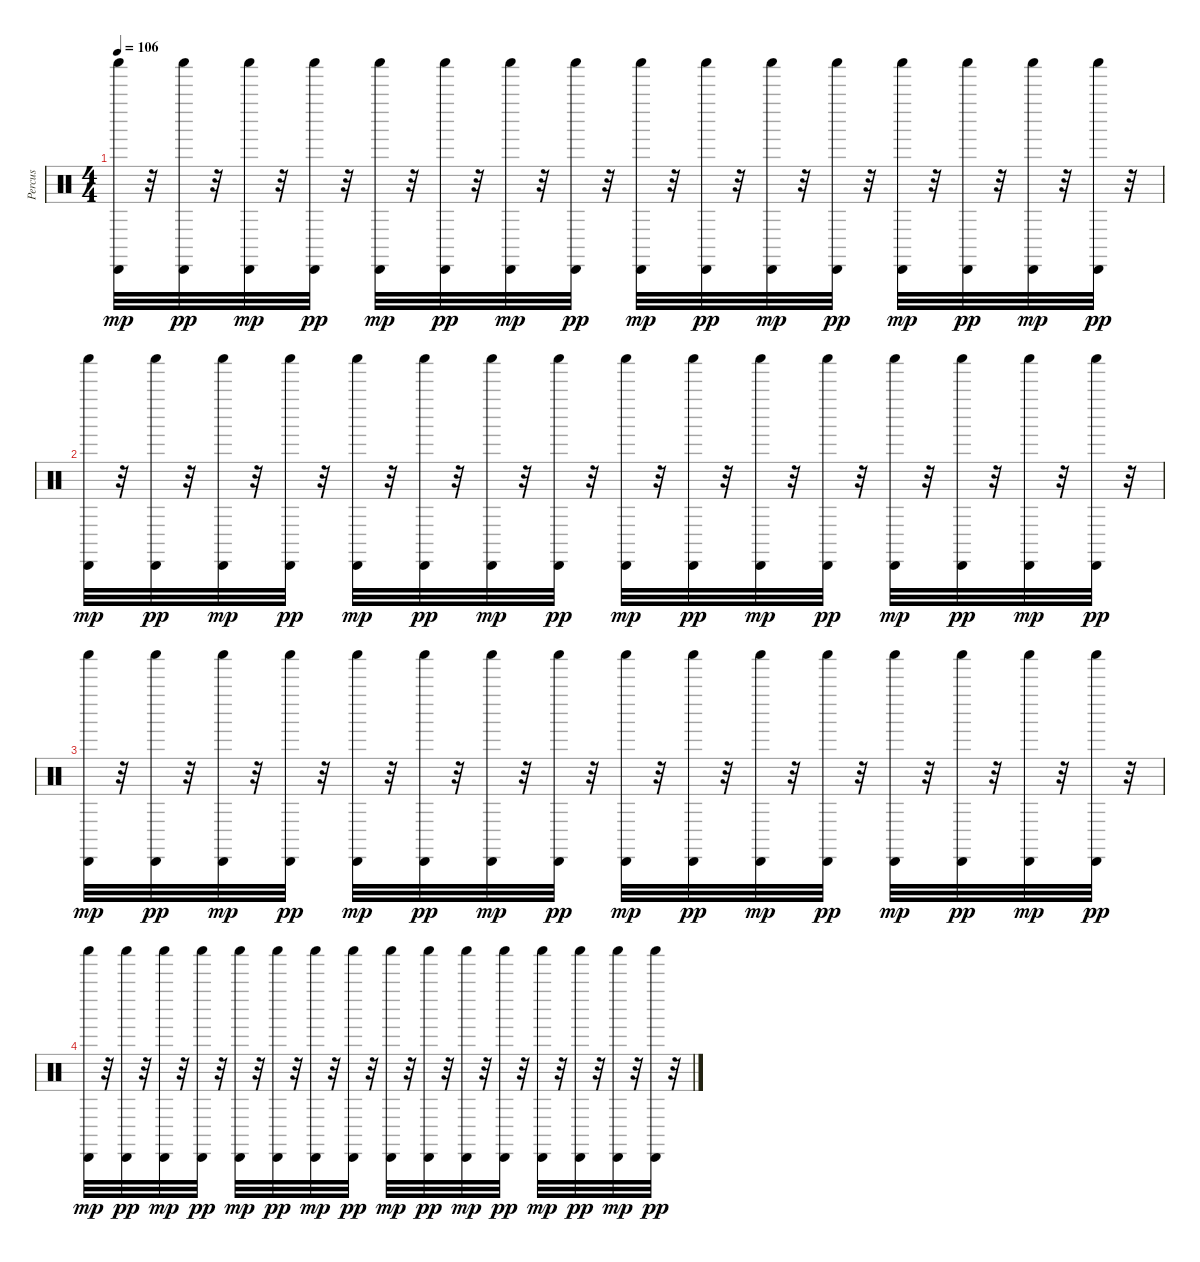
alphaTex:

\track ("Percus" "Percus") {instrument percussion}
\staff {score}
\articulation defaults
\ts (4 4)
\tempo 106
\clef neutral
\ks c
("Shaker (hit)" "Cabasa (hit)").32{dy mp} r.32 ("Shaker (hit)" "Cabasa (hit)").32{dy pp} r.32 ("Shaker (hit)" "Cabasa (hit)").32{dy mp} r.32 ("Shaker (hit)" "Cabasa (hit)").32{dy pp} r.32 ("Shaker (hit)" "Cabasa (hit)").32{dy mp} r.32 ("Shaker (hit)" "Cabasa (hit)").32{dy pp} r.32 ("Shaker (hit)" "Cabasa (hit)").32{dy mp} r.32 ("Shaker (hit)" "Cabasa (hit)").32{dy pp} r.32 ("Shaker (hit)" "Cabasa (hit)").32{dy mp} r.32 ("Shaker (hit)" "Cabasa (hit)").32{dy pp} r.32 ("Shaker (hit)" "Cabasa (hit)").32{dy mp} r.32 ("Shaker (hit)" "Cabasa (hit)").32{dy pp} r.32 ("Shaker (hit)" "Cabasa (hit)").32{dy mp} r.32 ("Shaker (hit)" "Cabasa (hit)").32{dy pp} r.32 ("Shaker (hit)" "Cabasa (hit)").32{dy mp} r.32 ("Shaker (hit)" "Cabasa (hit)").32{dy pp} r.32 |
("Shaker (hit)" "Cabasa (hit)").32{dy mp} r.32 ("Shaker (hit)" "Cabasa (hit)").32{dy pp} r.32 ("Shaker (hit)" "Cabasa (hit)").32{dy mp} r.32 ("Shaker (hit)" "Cabasa (hit)").32{dy pp} r.32 ("Shaker (hit)" "Cabasa (hit)").32{dy mp} r.32 ("Shaker (hit)" "Cabasa (hit)").32{dy pp} r.32 ("Shaker (hit)" "Cabasa (hit)").32{dy mp} r.32 ("Shaker (hit)" "Cabasa (hit)").32{dy pp} r.32 ("Shaker (hit)" "Cabasa (hit)").32{dy mp} r.32 ("Shaker (hit)" "Cabasa (hit)").32{dy pp} r.32 ("Shaker (hit)" "Cabasa (hit)").32{dy mp} r.32 ("Shaker (hit)" "Cabasa (hit)").32{dy pp} r.32 ("Shaker (hit)" "Cabasa (hit)").32{dy mp} r.32 ("Shaker (hit)" "Cabasa (hit)").32{dy pp} r.32 ("Shaker (hit)" "Cabasa (hit)").32{dy mp} r.32 ("Shaker (hit)" "Cabasa (hit)").32{dy pp} r.32 |
("Shaker (hit)" "Cabasa (hit)").32{dy mp} r.32 ("Shaker (hit)" "Cabasa (hit)").32{dy pp} r.32 ("Shaker (hit)" "Cabasa (hit)").32{dy mp} r.32 ("Shaker (hit)" "Cabasa (hit)").32{dy pp} r.32 ("Shaker (hit)" "Cabasa (hit)").32{dy mp} r.32 ("Shaker (hit)" "Cabasa (hit)").32{dy pp} r.32 ("Shaker (hit)" "Cabasa (hit)").32{dy mp} r.32 ("Shaker (hit)" "Cabasa (hit)").32{dy pp} r.32 ("Shaker (hit)" "Cabasa (hit)").32{dy mp} r.32 ("Shaker (hit)" "Cabasa (hit)").32{dy pp} r.32 ("Shaker (hit)" "Cabasa (hit)").32{dy mp} r.32 ("Shaker (hit)" "Cabasa (hit)").32{dy pp} r.32 ("Shaker (hit)" "Cabasa (hit)").32{dy mp} r.32 ("Shaker (hit)" "Cabasa (hit)").32{dy pp} r.32 ("Shaker (hit)" "Cabasa (hit)").32{dy mp} r.32 ("Shaker (hit)" "Cabasa (hit)").32{dy pp} r.32 |
("Shaker (hit)" "Cabasa (hit)").32{dy mp} r.32 ("Shaker (hit)" "Cabasa (hit)").32{dy pp} r.32 ("Shaker (hit)" "Cabasa (hit)").32{dy mp} r.32 ("Shaker (hit)" "Cabasa (hit)").32{dy pp} r.32 ("Shaker (hit)" "Cabasa (hit)").32{dy mp} r.32 ("Shaker (hit)" "Cabasa (hit)").32{dy pp} r.32 ("Shaker (hit)" "Cabasa (hit)").32{dy mp} r.32 ("Shaker (hit)" "Cabasa (hit)").32{dy pp} r.32 ("Shaker (hit)" "Cabasa (hit)").32{dy mp} r.32 ("Shaker (hit)" "Cabasa (hit)").32{dy pp} r.32 ("Shaker (hit)" "Cabasa (hit)").32{dy mp} r.32 ("Shaker (hit)" "Cabasa (hit)").32{dy pp} r.32 ("Shaker (hit)" "Cabasa (hit)").32{dy mp} r.32 ("Shaker (hit)" "Cabasa (hit)").32{dy pp} r.32 ("Shaker (hit)" "Cabasa (hit)").32{dy mp} r.32 ("Shaker (hit)" "Cabasa (hit)").32{dy pp} r.32
